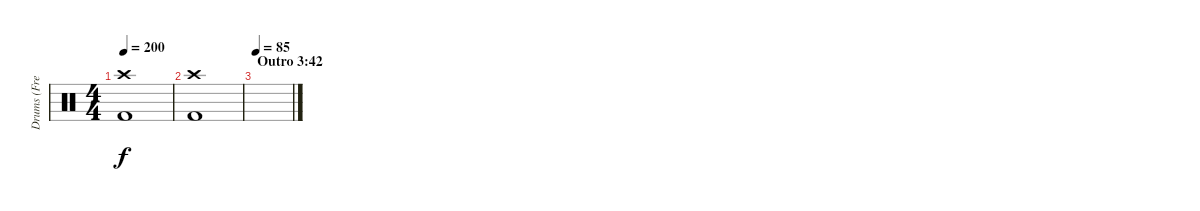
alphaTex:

\track ("Drums (Fred Estby)" "Drums (Fre") {instrument percussion}
\staff {score}
\articulation defaults
\ts (4 4)
\tempo 200
\clef neutral
\ks c
("Kick (hit) 2" "Crash high (hit)").1{dy f} |
("Kick (hit) 2" "Crash high (hit)").1 |
\section ("" "Outro 3:42")
\tempo 85
